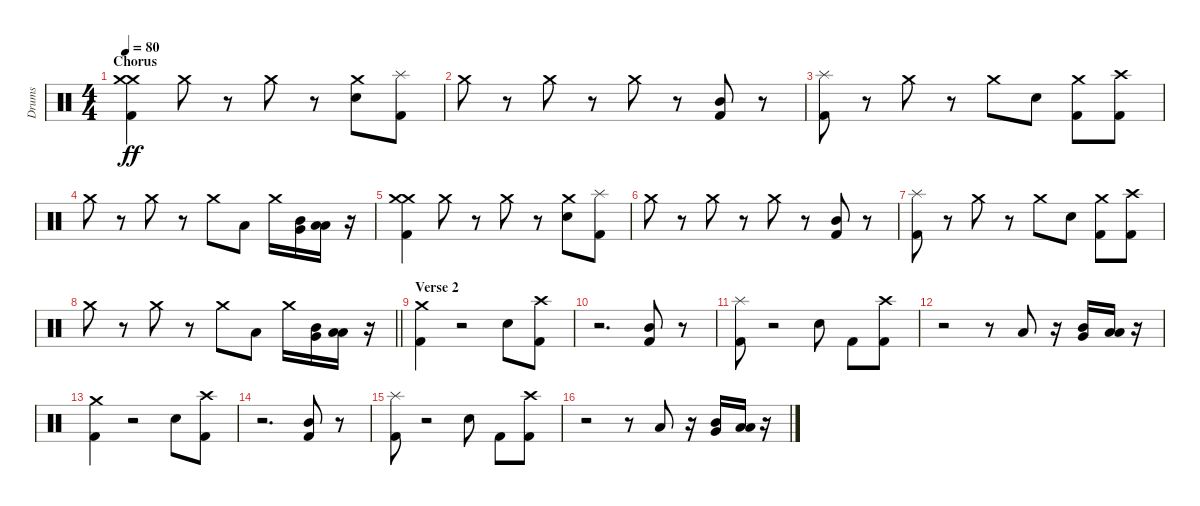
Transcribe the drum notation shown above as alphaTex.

\track ("Drums" "Drums") {instrument percussion}
\staff {score}
\articulation defaults
\ts (4 4)
\section ("" "Chorus")
\tempo 80
\clef neutral
\ks c
("Crash medium (hit)" "Kick (hit) 2" "Crash medium (hit)").4{dy ff} "Crash medium (hit)".8 r.8 "Crash medium (hit)".8 r.8 ("Snare (hit) 2" "Crash medium (hit)").8 ("Kick (hit) 2" "Splash (hit)").8 |
"Crash medium (hit)".8 r.8 "Crash medium (hit)".8 r.8 "Crash medium (hit)".8 r.8 ("Kick (hit) 2" "Mid Tom (hit)").8 r.8 |
("Kick (hit) 2" "Splash (hit)").8 r.8 "Crash medium (hit)".8 r.8 "Crash medium (hit)".8 "Snare (hit) 2".8 ("Kick (hit) 2" "Crash medium (hit)").8 ("Kick (hit) 2" "Crash high (hit)").8 |
"Crash medium (hit)".8 r.8 "Crash medium (hit)".8 r.8 "Crash medium (hit)".8 "Low Tom (hit)".8 "Crash medium (hit)".16 ("Very Low Tom (hit)" "Mid Tom (hit)").16 ("Low Floor Tom (hit)" "Low Tom (hit)").16 r.16 |
("Crash medium (hit)" "Kick (hit) 2" "Crash medium (hit)").4 "Crash medium (hit)".8 r.8 "Crash medium (hit)".8 r.8 ("Snare (hit) 2" "Crash medium (hit)").8 ("Kick (hit) 2" "Splash (hit)").8 |
"Crash medium (hit)".8 r.8 "Crash medium (hit)".8 r.8 "Crash medium (hit)".8 r.8 ("Kick (hit) 2" "Mid Tom (hit)").8 r.8 |
("Kick (hit) 2" "Splash (hit)").8 r.8 "Crash medium (hit)".8 r.8 "Crash medium (hit)".8 "Snare (hit) 2".8 ("Kick (hit) 2" "Crash medium (hit)").8 ("Kick (hit) 2" "Crash high (hit)").8 |
\barLineRight lightlight "Crash medium (hit)".8
r.8 "Crash medium (hit)".8 r.8 "Crash medium (hit)".8 "Low Tom (hit)".8 "Crash medium (hit)".16 ("Very Low Tom (hit)" "Mid Tom (hit)").16 ("Low Floor Tom (hit)" "Low Tom (hit)").16 r.16 |
\section ("" "Verse 2")
("Crash medium (hit)" "Kick (hit) 2").4 r.2 "Snare (hit) 2".8 ("Kick (hit) 2" "Crash high (hit)").8 |
r.2{d} ("Kick (hit) 2" "Mid Tom (hit)").8 r.8 |
("Kick (hit) 2" "Splash (hit)").8 r.2 "Snare (hit) 2".8 "Kick (hit) 2".8 ("Kick (hit) 2" "Crash high (hit)").8 |
r.2 r.8 "Low Tom (hit)".8 r.16 ("Very Low Tom (hit)" "Mid Tom (hit)").16 ("Low Floor Tom (hit)" "Low Tom (hit)").16 r.16 |
("Crash medium (hit)" "Kick (hit) 2").4 r.2 "Snare (hit) 2".8 ("Kick (hit) 2" "Crash high (hit)").8 |
r.2{d} ("Kick (hit) 2" "Mid Tom (hit)").8 r.8 |
("Kick (hit) 2" "Splash (hit)").8 r.2 "Snare (hit) 2".8 "Kick (hit) 2".8 ("Kick (hit) 2" "Crash high (hit)").8 |
r.2 r.8 "Low Tom (hit)".8 r.16 ("Very Low Tom (hit)" "Mid Tom (hit)").16 ("Low Floor Tom (hit)" "Low Tom (hit)").16 r.16
